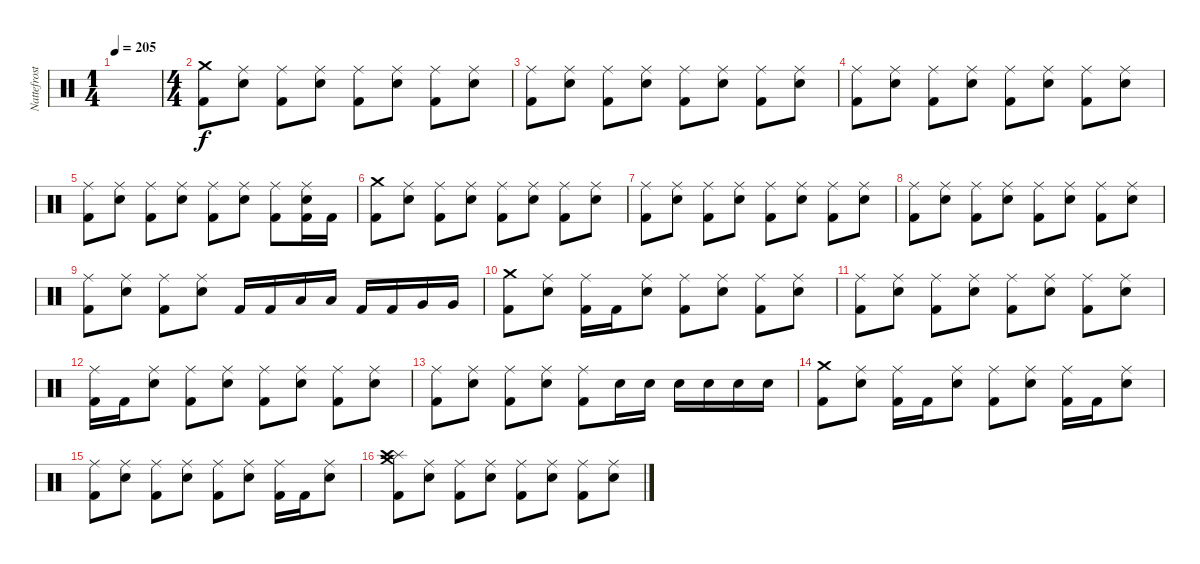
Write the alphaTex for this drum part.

\track ("Nattefrost" "Nattefrost") {instrument percussion}
\staff {score}
\articulation defaults
\ts (1 4)
\tempo 205
\clef neutral
\ks c
|
\ts (4 4)
("Crash medium (hit)" "Kick (hit) 2").8 ("Ride (middle)" "Snare (hit) 2").8 ("Ride (middle)" "Kick (hit) 2").8 ("Ride (middle)" "Snare (hit) 2").8 ("Ride (middle)" "Kick (hit) 2").8 ("Ride (middle)" "Snare (hit) 2").8 ("Ride (middle)" "Kick (hit) 2").8 ("Ride (middle)" "Snare (hit) 2").8 |
("Ride (middle)" "Kick (hit) 2").8 ("Ride (middle)" "Snare (hit) 2").8 ("Ride (middle)" "Kick (hit) 2").8 ("Ride (middle)" "Snare (hit) 2").8 ("Ride (middle)" "Kick (hit) 2").8 ("Ride (middle)" "Snare (hit) 2").8 ("Ride (middle)" "Kick (hit) 2").8 ("Ride (middle)" "Snare (hit) 2").8 |
("Ride (middle)" "Kick (hit) 2").8 ("Ride (middle)" "Snare (hit) 2").8 ("Ride (middle)" "Kick (hit) 2").8 ("Ride (middle)" "Snare (hit) 2").8 ("Ride (middle)" "Kick (hit) 2").8 ("Ride (middle)" "Snare (hit) 2").8 ("Ride (middle)" "Kick (hit) 2").8 ("Ride (middle)" "Snare (hit) 2").8 |
("Ride (middle)" "Kick (hit) 2").8 ("Ride (middle)" "Snare (hit) 2").8 ("Ride (middle)" "Kick (hit) 2").8 ("Ride (middle)" "Snare (hit) 2").8 ("Ride (middle)" "Kick (hit) 2").8 ("Ride (middle)" "Snare (hit) 2").8 ("Ride (middle)" "Kick (hit) 2").8 ("Ride (middle)" "Snare (hit) 2" "Kick (hit) 2").16 "Kick (hit) 2".16 |
("Crash medium (hit)" "Kick (hit) 2").8 ("Ride (middle)" "Snare (hit) 2").8 ("Ride (middle)" "Kick (hit) 2").8 ("Ride (middle)" "Snare (hit) 2").8 ("Ride (middle)" "Kick (hit) 2").8 ("Ride (middle)" "Snare (hit) 2").8 ("Ride (middle)" "Kick (hit) 2").8 ("Ride (middle)" "Snare (hit) 2").8 |
("Ride (middle)" "Kick (hit) 2").8 ("Ride (middle)" "Snare (hit) 2").8 ("Ride (middle)" "Kick (hit) 2").8 ("Ride (middle)" "Snare (hit) 2").8 ("Ride (middle)" "Kick (hit) 2").8 ("Ride (middle)" "Snare (hit) 2").8 ("Ride (middle)" "Kick (hit) 2").8 ("Ride (middle)" "Snare (hit) 2").8 |
("Ride (middle)" "Kick (hit) 2").8 ("Ride (middle)" "Snare (hit) 2").8 ("Ride (middle)" "Kick (hit) 2").8 ("Ride (middle)" "Snare (hit) 2").8 ("Ride (middle)" "Kick (hit) 2").8 ("Ride (middle)" "Snare (hit) 2").8 ("Ride (middle)" "Kick (hit) 2").8 ("Ride (middle)" "Snare (hit) 2").8 |
("Ride (middle)" "Kick (hit) 2").8 ("Ride (middle)" "Snare (hit) 2").8 ("Ride (middle)" "Kick (hit) 2").8 ("Ride (middle)" "Snare (hit) 2").8 "Kick (hit) 2".16 "Kick (hit) 2".16 "Low Tom (hit)".16 "Low Tom (hit)".16 "Kick (hit) 2".16 "Kick (hit) 2".16 "Very Low Tom (hit)".16 "Very Low Tom (hit)".16 |
("Crash medium (hit)" "Kick (hit) 2").8 ("Ride (middle)" "Snare (hit) 2").8 ("Ride (middle)" "Kick (hit) 2").16 "Kick (hit) 2".16 ("Ride (middle)" "Snare (hit) 2").8 ("Ride (middle)" "Kick (hit) 2").8 ("Ride (middle)" "Snare (hit) 2").8 ("Ride (middle)" "Kick (hit) 2").8 ("Ride (middle)" "Snare (hit) 2").8 |
("Ride (middle)" "Kick (hit) 2").8 ("Ride (middle)" "Snare (hit) 2").8 ("Ride (middle)" "Kick (hit) 2").8 ("Ride (middle)" "Snare (hit) 2").8 ("Ride (middle)" "Kick (hit) 2").8 ("Ride (middle)" "Snare (hit) 2").8 ("Ride (middle)" "Kick (hit) 2").8 ("Ride (middle)" "Snare (hit) 2").8 |
("Ride (middle)" "Kick (hit) 2").16 "Kick (hit) 2".16 ("Ride (middle)" "Snare (hit) 2").8 ("Ride (middle)" "Kick (hit) 2").8 ("Ride (middle)" "Snare (hit) 2").8 ("Ride (middle)" "Kick (hit) 2").8 ("Ride (middle)" "Snare (hit) 2").8 ("Ride (middle)" "Kick (hit) 2").8 ("Ride (middle)" "Snare (hit) 2").8 |
("Ride (middle)" "Kick (hit) 2").8 ("Ride (middle)" "Snare (hit) 2").8 ("Ride (middle)" "Kick (hit) 2").8 ("Ride (middle)" "Snare (hit) 2").8 ("Ride (middle)" "Kick (hit) 2").8 "Snare (hit) 2".16 "Snare (hit) 2".16 "Snare (hit) 2".16 "Snare (hit) 2".16 "Snare (hit) 2".16 "Snare (hit) 2".16 |
("Crash medium (hit)" "Kick (hit) 2").8 ("Ride (middle)" "Snare (hit) 2").8 ("Ride (middle)" "Kick (hit) 2").16 "Kick (hit) 2".16 ("Ride (middle)" "Snare (hit) 2").8 ("Ride (middle)" "Kick (hit) 2").8 ("Ride (middle)" "Snare (hit) 2").8 ("Ride (middle)" "Kick (hit) 2").16 "Kick (hit) 2".16 ("Ride (middle)" "Snare (hit) 2").8 |
("Ride (middle)" "Kick (hit) 2").8 ("Ride (middle)" "Snare (hit) 2").8 ("Ride (middle)" "Kick (hit) 2").8 ("Ride (middle)" "Snare (hit) 2").8 ("Ride (middle)" "Kick (hit) 2").8 ("Ride (middle)" "Snare (hit) 2").8 ("Ride (middle)" "Kick (hit) 2").16 "Kick (hit) 2".16 ("Ride (middle)" "Snare (hit) 2").8 |
("Splash (hit)" "Crash medium (hit)" "Crash high (hit)" "Kick (hit) 2").8 ("Ride (middle)" "Snare (hit) 2").8 ("Ride (middle)" "Kick (hit) 2").8 ("Ride (middle)" "Snare (hit) 2").8 ("Ride (middle)" "Kick (hit) 2").8 ("Ride (middle)" "Snare (hit) 2").8 ("Ride (middle)" "Kick (hit) 2").8 ("Ride (middle)" "Snare (hit) 2").8
